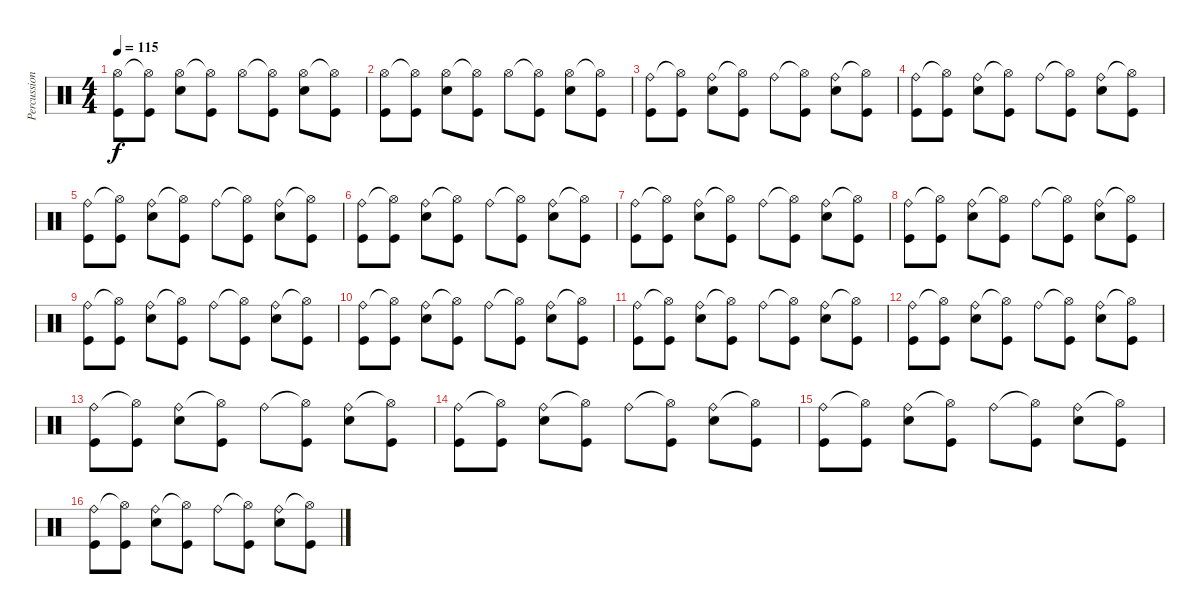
\track ("Percussioni" "Percussion") {instrument percussion}
\staff {score}
\articulation defaults
\ts (4 4)
\tempo 115
\clef neutral
\ks c
("Hi-Hat (open)" "Kick (hit)").8{dy f} ("Hi-Hat (open)"{t} "Kick (hit)").8 ("Hi-Hat (open)" "Snare (hit) 2").8 ("Hi-Hat (open)"{t} "Kick (hit)").8 "Hi-Hat (open)".8 ("Hi-Hat (open)"{t} "Kick (hit)").8 ("Hi-Hat (open)" "Snare (hit) 2").8 ("Hi-Hat (open)"{t} "Kick (hit)").8 |
("Hi-Hat (open)" "Kick (hit)").8 ("Hi-Hat (open)"{t} "Kick (hit)").8 ("Hi-Hat (open)" "Snare (hit) 2").8 ("Hi-Hat (open)"{t} "Kick (hit)").8 "Hi-Hat (open)".8 ("Hi-Hat (open)"{t} "Kick (hit)").8 ("Hi-Hat (open)" "Snare (hit) 2").8 ("Hi-Hat (open)"{t} "Kick (hit)").8 |
("Ride (bell)" "Kick (hit)").8 ("Hi-Hat (open)"{t} "Kick (hit)").8 ("Ride (bell)" "Snare (hit) 2").8 ("Hi-Hat (open)"{t} "Kick (hit)").8 "Ride (bell)".8 ("Hi-Hat (open)"{t} "Kick (hit)").8 ("Ride (bell)" "Snare (hit) 2").8 ("Hi-Hat (open)"{t} "Kick (hit)").8 |
("Ride (bell)" "Kick (hit)").8 ("Hi-Hat (open)"{t} "Kick (hit)").8 ("Ride (bell)" "Snare (hit) 2").8 ("Hi-Hat (open)"{t} "Kick (hit)").8 "Ride (bell)".8 ("Hi-Hat (open)"{t} "Kick (hit)").8 ("Ride (bell)" "Snare (hit) 2").8 ("Hi-Hat (open)"{t} "Kick (hit)").8 |
("Ride (bell)" "Kick (hit)").8 ("Hi-Hat (open)"{t} "Kick (hit)").8 ("Ride (bell)" "Snare (hit) 2").8 ("Hi-Hat (open)"{t} "Kick (hit)").8 "Ride (bell)".8 ("Hi-Hat (open)"{t} "Kick (hit)").8 ("Ride (bell)" "Snare (hit) 2").8 ("Hi-Hat (open)"{t} "Kick (hit)").8 |
("Ride (bell)" "Kick (hit)").8 ("Hi-Hat (open)"{t} "Kick (hit)").8 ("Ride (bell)" "Snare (hit) 2").8 ("Hi-Hat (open)"{t} "Kick (hit)").8 "Ride (bell)".8 ("Hi-Hat (open)"{t} "Kick (hit)").8 ("Ride (bell)" "Snare (hit) 2").8 ("Hi-Hat (open)"{t} "Kick (hit)").8 |
("Ride (bell)" "Kick (hit)").8 ("Hi-Hat (open)"{t} "Kick (hit)").8 ("Ride (bell)" "Snare (hit) 2").8 ("Hi-Hat (open)"{t} "Kick (hit)").8 "Ride (bell)".8 ("Hi-Hat (open)"{t} "Kick (hit)").8 ("Ride (bell)" "Snare (hit) 2").8 ("Hi-Hat (open)"{t} "Kick (hit)").8 |
("Ride (bell)" "Kick (hit)").8 ("Hi-Hat (open)"{t} "Kick (hit)").8 ("Ride (bell)" "Snare (hit) 2").8 ("Hi-Hat (open)"{t} "Kick (hit)").8 "Ride (bell)".8 ("Hi-Hat (open)"{t} "Kick (hit)").8 ("Ride (bell)" "Snare (hit) 2").8 ("Hi-Hat (open)"{t} "Kick (hit)").8 |
("Ride (bell)" "Kick (hit)").8 ("Hi-Hat (open)"{t} "Kick (hit)").8 ("Ride (bell)" "Snare (hit) 2").8 ("Hi-Hat (open)"{t} "Kick (hit)").8 "Ride (bell)".8 ("Hi-Hat (open)"{t} "Kick (hit)").8 ("Ride (bell)" "Snare (hit) 2").8 ("Hi-Hat (open)"{t} "Kick (hit)").8 |
("Ride (bell)" "Kick (hit)").8 ("Hi-Hat (open)"{t} "Kick (hit)").8 ("Ride (bell)" "Snare (hit) 2").8 ("Hi-Hat (open)"{t} "Kick (hit)").8 "Ride (bell)".8 ("Hi-Hat (open)"{t} "Kick (hit)").8 ("Ride (bell)" "Snare (hit) 2").8 ("Hi-Hat (open)"{t} "Kick (hit)").8 |
("Ride (bell)" "Kick (hit)").8 ("Hi-Hat (open)"{t} "Kick (hit)").8 ("Ride (bell)" "Snare (hit) 2").8 ("Hi-Hat (open)"{t} "Kick (hit)").8 "Ride (bell)".8 ("Hi-Hat (open)"{t} "Kick (hit)").8 ("Ride (bell)" "Snare (hit) 2").8 ("Hi-Hat (open)"{t} "Kick (hit)").8 |
("Ride (bell)" "Kick (hit)").8 ("Hi-Hat (open)"{t} "Kick (hit)").8 ("Ride (bell)" "Snare (hit) 2").8 ("Hi-Hat (open)"{t} "Kick (hit)").8 "Ride (bell)".8 ("Hi-Hat (open)"{t} "Kick (hit)").8 ("Ride (bell)" "Snare (hit) 2").8 ("Hi-Hat (open)"{t} "Kick (hit)").8 |
("Ride (bell)" "Kick (hit)").8 ("Hi-Hat (open)"{t} "Kick (hit)").8 ("Ride (bell)" "Snare (hit) 2").8 ("Hi-Hat (open)"{t} "Kick (hit)").8 "Ride (bell)".8 ("Hi-Hat (open)"{t} "Kick (hit)").8 ("Ride (bell)" "Snare (hit) 2").8 ("Hi-Hat (open)"{t} "Kick (hit)").8 |
("Ride (bell)" "Kick (hit)").8 ("Hi-Hat (open)"{t} "Kick (hit)").8 ("Ride (bell)" "Snare (hit) 2").8 ("Hi-Hat (open)"{t} "Kick (hit)").8 "Ride (bell)".8 ("Hi-Hat (open)"{t} "Kick (hit)").8 ("Ride (bell)" "Snare (hit) 2").8 ("Hi-Hat (open)"{t} "Kick (hit)").8 |
("Ride (bell)" "Kick (hit)").8 ("Hi-Hat (open)"{t} "Kick (hit)").8 ("Ride (bell)" "Snare (hit) 2").8 ("Hi-Hat (open)"{t} "Kick (hit)").8 "Ride (bell)".8 ("Hi-Hat (open)"{t} "Kick (hit)").8 ("Ride (bell)" "Snare (hit) 2").8 ("Hi-Hat (open)"{t} "Kick (hit)").8 |
("Ride (bell)" "Kick (hit)").8 ("Hi-Hat (open)"{t} "Kick (hit)").8 ("Ride (bell)" "Snare (hit) 2").8 ("Hi-Hat (open)"{t} "Kick (hit)").8 "Ride (bell)".8 ("Hi-Hat (open)"{t} "Kick (hit)").8 ("Ride (bell)" "Snare (hit) 2").8 ("Hi-Hat (open)"{t} "Kick (hit)").8
